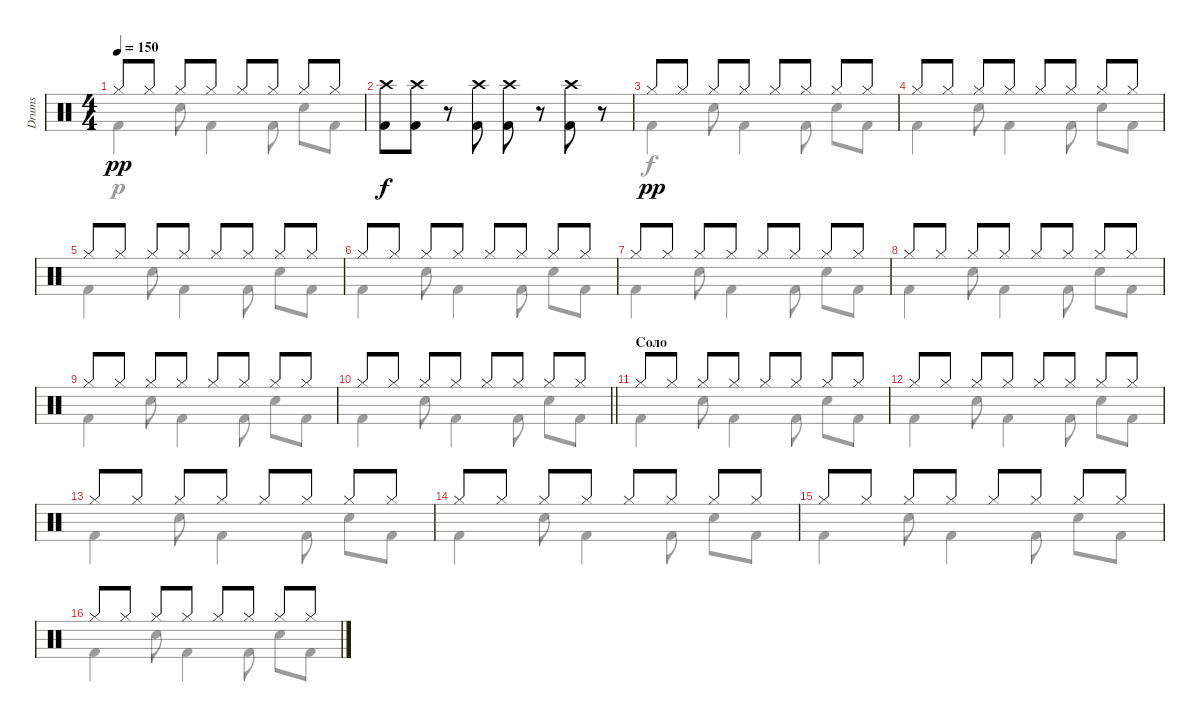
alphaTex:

\track ("Drums" "Drums") {instrument percussion}
\staff {score}
\articulation defaults
\voice
\ts (4 4)
\tempo 150
\clef neutral
\ks c "Hi-Hat (closed)".8{dy pp} "Hi-Hat (closed)".8 "Hi-Hat (closed)".8 "Hi-Hat (closed)".8 "Hi-Hat (closed)".8 "Hi-Hat (closed)".8 "Hi-Hat (closed)".8 "Hi-Hat (closed)".8
|
("Crash high (hit)" "Kick (hit) 2").8{dy f volume 12 balance 8} ("Crash high (hit)" "Kick (hit) 2").8 r.8 ("Crash high (hit)" "Kick (hit) 2").8 ("Crash high (hit)" "Kick (hit) 2").8 r.8 ("Crash high (hit)" "Kick (hit) 2").8 r.8 |
"Hi-Hat (closed)".8{dy pp} "Hi-Hat (closed)".8 "Hi-Hat (closed)".8 "Hi-Hat (closed)".8 "Hi-Hat (closed)".8 "Hi-Hat (closed)".8 "Hi-Hat (closed)".8 "Hi-Hat (closed)".8 |
"Hi-Hat (closed)".8 "Hi-Hat (closed)".8 "Hi-Hat (closed)".8 "Hi-Hat (closed)".8 "Hi-Hat (closed)".8 "Hi-Hat (closed)".8 "Hi-Hat (closed)".8 "Hi-Hat (closed)".8 |
"Hi-Hat (closed)".8 "Hi-Hat (closed)".8 "Hi-Hat (closed)".8 "Hi-Hat (closed)".8 "Hi-Hat (closed)".8 "Hi-Hat (closed)".8 "Hi-Hat (closed)".8 "Hi-Hat (closed)".8 |
"Hi-Hat (closed)".8 "Hi-Hat (closed)".8 "Hi-Hat (closed)".8 "Hi-Hat (closed)".8 "Hi-Hat (closed)".8 "Hi-Hat (closed)".8 "Hi-Hat (closed)".8 "Hi-Hat (closed)".8 |
"Hi-Hat (closed)".8 "Hi-Hat (closed)".8 "Hi-Hat (closed)".8 "Hi-Hat (closed)".8 "Hi-Hat (closed)".8 "Hi-Hat (closed)".8 "Hi-Hat (closed)".8 "Hi-Hat (closed)".8 |
"Hi-Hat (closed)".8 "Hi-Hat (closed)".8 "Hi-Hat (closed)".8 "Hi-Hat (closed)".8 "Hi-Hat (closed)".8 "Hi-Hat (closed)".8 "Hi-Hat (closed)".8 "Hi-Hat (closed)".8 |
"Hi-Hat (closed)".8 "Hi-Hat (closed)".8 "Hi-Hat (closed)".8 "Hi-Hat (closed)".8 "Hi-Hat (closed)".8 "Hi-Hat (closed)".8 "Hi-Hat (closed)".8 "Hi-Hat (closed)".8 |
\barLineRight lightlight "Hi-Hat (closed)".8 "Hi-Hat (closed)".8 "Hi-Hat (closed)".8 "Hi-Hat (closed)".8 "Hi-Hat (closed)".8 "Hi-Hat (closed)".8 "Hi-Hat (closed)".8 "Hi-Hat (closed)".8
|
\section ("" "Соло")
"Hi-Hat (closed)".8 "Hi-Hat (closed)".8 "Hi-Hat (closed)".8 "Hi-Hat (closed)".8 "Hi-Hat (closed)".8 "Hi-Hat (closed)".8 "Hi-Hat (closed)".8 "Hi-Hat (closed)".8 |
"Hi-Hat (closed)".8 "Hi-Hat (closed)".8 "Hi-Hat (closed)".8 "Hi-Hat (closed)".8 "Hi-Hat (closed)".8 "Hi-Hat (closed)".8 "Hi-Hat (closed)".8 "Hi-Hat (closed)".8 |
"Hi-Hat (closed)".8 "Hi-Hat (closed)".8 "Hi-Hat (closed)".8 "Hi-Hat (closed)".8 "Hi-Hat (closed)".8 "Hi-Hat (closed)".8 "Hi-Hat (closed)".8 "Hi-Hat (closed)".8 |
"Hi-Hat (closed)".8 "Hi-Hat (closed)".8 "Hi-Hat (closed)".8 "Hi-Hat (closed)".8 "Hi-Hat (closed)".8 "Hi-Hat (closed)".8 "Hi-Hat (closed)".8 "Hi-Hat (closed)".8 |
"Hi-Hat (closed)".8 "Hi-Hat (closed)".8 "Hi-Hat (closed)".8 "Hi-Hat (closed)".8 "Hi-Hat (closed)".8 "Hi-Hat (closed)".8 "Hi-Hat (closed)".8 "Hi-Hat (closed)".8 |
"Hi-Hat (closed)".8 "Hi-Hat (closed)".8 "Hi-Hat (closed)".8 "Hi-Hat (closed)".8 "Hi-Hat (closed)".8 "Hi-Hat (closed)".8 "Hi-Hat (closed)".8 "Hi-Hat (closed)".8
\voice
\clef neutral
\ottava regular
\simile none
\ks c "Kick (hit) 2".4{dy p} "Electric Snare (hit)".8 "Kick (hit) 2".4 "Kick (hit) 2".8 "Electric Snare (hit)".8 "Kick (hit) 2".8
|
|
"Kick (hit) 2".4{dy f} "Electric Snare (hit)".8 "Kick (hit) 2".4 "Kick (hit) 2".8 "Electric Snare (hit)".8 "Kick (hit) 2".8 |
"Kick (hit) 2".4 "Electric Snare (hit)".8 "Kick (hit) 2".4 "Kick (hit) 2".8 "Electric Snare (hit)".8 "Kick (hit) 2".8 |
"Kick (hit) 2".4 "Electric Snare (hit)".8 "Kick (hit) 2".4 "Kick (hit) 2".8 "Electric Snare (hit)".8 "Kick (hit) 2".8 |
"Kick (hit) 2".4 "Electric Snare (hit)".8 "Kick (hit) 2".4 "Kick (hit) 2".8 "Electric Snare (hit)".8 "Kick (hit) 2".8 |
"Kick (hit) 2".4 "Electric Snare (hit)".8 "Kick (hit) 2".4 "Kick (hit) 2".8 "Electric Snare (hit)".8 "Kick (hit) 2".8 |
"Kick (hit) 2".4 "Electric Snare (hit)".8 "Kick (hit) 2".4 "Kick (hit) 2".8 "Electric Snare (hit)".8 "Kick (hit) 2".8 |
"Kick (hit) 2".4 "Electric Snare (hit)".8 "Kick (hit) 2".4 "Kick (hit) 2".8 "Electric Snare (hit)".8 "Kick (hit) 2".8 |
\barLineRight lightlight "Kick (hit) 2".4 "Electric Snare (hit)".8 "Kick (hit) 2".4 "Kick (hit) 2".8 "Electric Snare (hit)".8 "Kick (hit) 2".8
|
"Kick (hit) 2".4 "Electric Snare (hit)".8 "Kick (hit) 2".4 "Kick (hit) 2".8 "Electric Snare (hit)".8 "Kick (hit) 2".8 |
"Kick (hit) 2".4 "Electric Snare (hit)".8 "Kick (hit) 2".4 "Kick (hit) 2".8 "Electric Snare (hit)".8 "Kick (hit) 2".8 |
"Kick (hit) 2".4 "Electric Snare (hit)".8 "Kick (hit) 2".4 "Kick (hit) 2".8 "Electric Snare (hit)".8 "Kick (hit) 2".8 |
"Kick (hit) 2".4 "Electric Snare (hit)".8 "Kick (hit) 2".4 "Kick (hit) 2".8 "Electric Snare (hit)".8 "Kick (hit) 2".8 |
"Kick (hit) 2".4 "Electric Snare (hit)".8 "Kick (hit) 2".4 "Kick (hit) 2".8 "Electric Snare (hit)".8 "Kick (hit) 2".8 |
"Kick (hit) 2".4 "Electric Snare (hit)".8 "Kick (hit) 2".4 "Kick (hit) 2".8 "Electric Snare (hit)".8 "Kick (hit) 2".8
